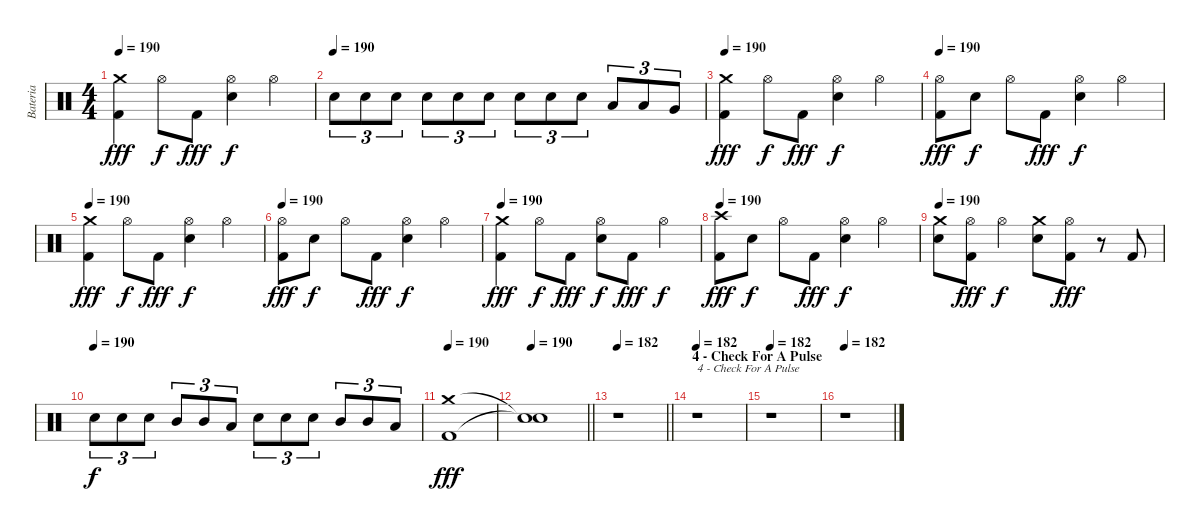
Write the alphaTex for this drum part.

\track ("Bateria" "Bateria") {instrument percussion}
\staff {score}
\articulation defaults
\ts (4 4)
\tempo 190
\clef neutral
\ks c
("Crash medium (hit)" "Kick (hit) 2").4{dy fff} "Hi-Hat (open)".8{dy f} "Kick (hit) 2".8{dy fff} ("Hi-Hat (open)" "Electric Snare (hit)").4{dy f} "Hi-Hat (open)".4 |
\tempo (190)
"Electric Snare (hit)".8{tu (3 2)} "Electric Snare (hit)".8{tu (3 2)} "Electric Snare (hit)".8{tu (3 2)} "Electric Snare (hit)".8{tu (3 2)} "Electric Snare (hit)".8{tu (3 2)} "Electric Snare (hit)".8{tu (3 2)} "Electric Snare (hit)".8{tu (3 2)} "Electric Snare (hit)".8{tu (3 2)} "Electric Snare (hit)".8{tu (3 2)} "Low Tom (hit)".8{tu (3 2)} "Low Tom (hit)".8{tu (3 2)} "Very Low Tom (hit)".8{tu (3 2)} |
\tempo 190
("Crash medium (hit)" "Kick (hit) 2").4{dy fff} "Hi-Hat (open)".8{dy f} "Kick (hit) 2".8{dy fff} ("Hi-Hat (open)" "Electric Snare (hit)").4{dy f} "Hi-Hat (open)".4 |
\tempo 190
("Hi-Hat (open)" "Kick (hit) 2").8{dy fff} "Electric Snare (hit)".8{dy f} "Hi-Hat (open)".8 "Kick (hit) 2".8{dy fff} ("Hi-Hat (open)" "Electric Snare (hit)").4{dy f} "Hi-Hat (open)".4 |
\tempo 190
("Crash medium (hit)" "Kick (hit) 2").4{dy fff} "Hi-Hat (open)".8{dy f} "Kick (hit) 2".8{dy fff} ("Hi-Hat (open)" "Electric Snare (hit)").4{dy f} "Hi-Hat (open)".4 |
\tempo 190
("Hi-Hat (open)" "Kick (hit) 2").8{dy fff} "Electric Snare (hit)".8{dy f} "Hi-Hat (open)".8 "Kick (hit) 2".8{dy fff} ("Hi-Hat (open)" "Electric Snare (hit)").4{dy f} "Hi-Hat (open)".4 |
\tempo 190
("Crash medium (hit)" "Kick (hit) 2").4{dy fff} "Hi-Hat (open)".8{dy f} "Kick (hit) 2".8{dy fff} ("Hi-Hat (open)" "Electric Snare (hit)").8{dy f} "Kick (hit) 2".8{dy fff} "Hi-Hat (open)".4{dy f} |
\tempo 190
("Crash high (hit)" "Kick (hit) 2").8{dy fff} "Electric Snare (hit)".8{dy f} "Hi-Hat (open)".8 "Kick (hit) 2".8{dy fff} ("Hi-Hat (open)" "Electric Snare (hit)").4{dy f} "Hi-Hat (open)".4 |
\tempo 190
("Crash medium (hit)" "Electric Snare (hit)").8 ("Hi-Hat (open)" "Kick (hit) 2").8{dy fff} "Hi-Hat (open)".4{dy f} ("Crash medium (hit)" "Electric Snare (hit)").8 ("Hi-Hat (open)" "Kick (hit) 2").8{dy fff} r.8 "Kick (hit) 2".8 |
\tempo (190)
"Electric Snare (hit)".8{tu (3 2) dy f} "Electric Snare (hit)".8{tu (3 2)} "Electric Snare (hit)".8{tu (3 2)} "Mid Tom (hit)".8{tu (3 2)} "Mid Tom (hit)".8{tu (3 2)} "Low Tom (hit)".8{tu (3 2)} "Electric Snare (hit)".8{tu (3 2)} "Electric Snare (hit)".8{tu (3 2)} "Electric Snare (hit)".8{tu (3 2)} "Mid Tom (hit)".8{tu (3 2)} "Mid Tom (hit)".8{tu (3 2)} "Low Tom (hit)".8{tu (3 2)} |
\tempo 190
("Crash medium (hit)" "Kick (hit) 2").1{dy fff} |
\tempo 190
\barLineRight lightlight
("Snare (hit)"{t} "Snare (hit)"{t}).1 |
\tempo 182
\barLineRight lightlight
r.1 |
\section ("" "4 - Check For A Pulse")
\tempo 182
r.1{txt "4 - Check For A Pulse"} |
\tempo 182
r.1 |
\tempo 182
r.1
